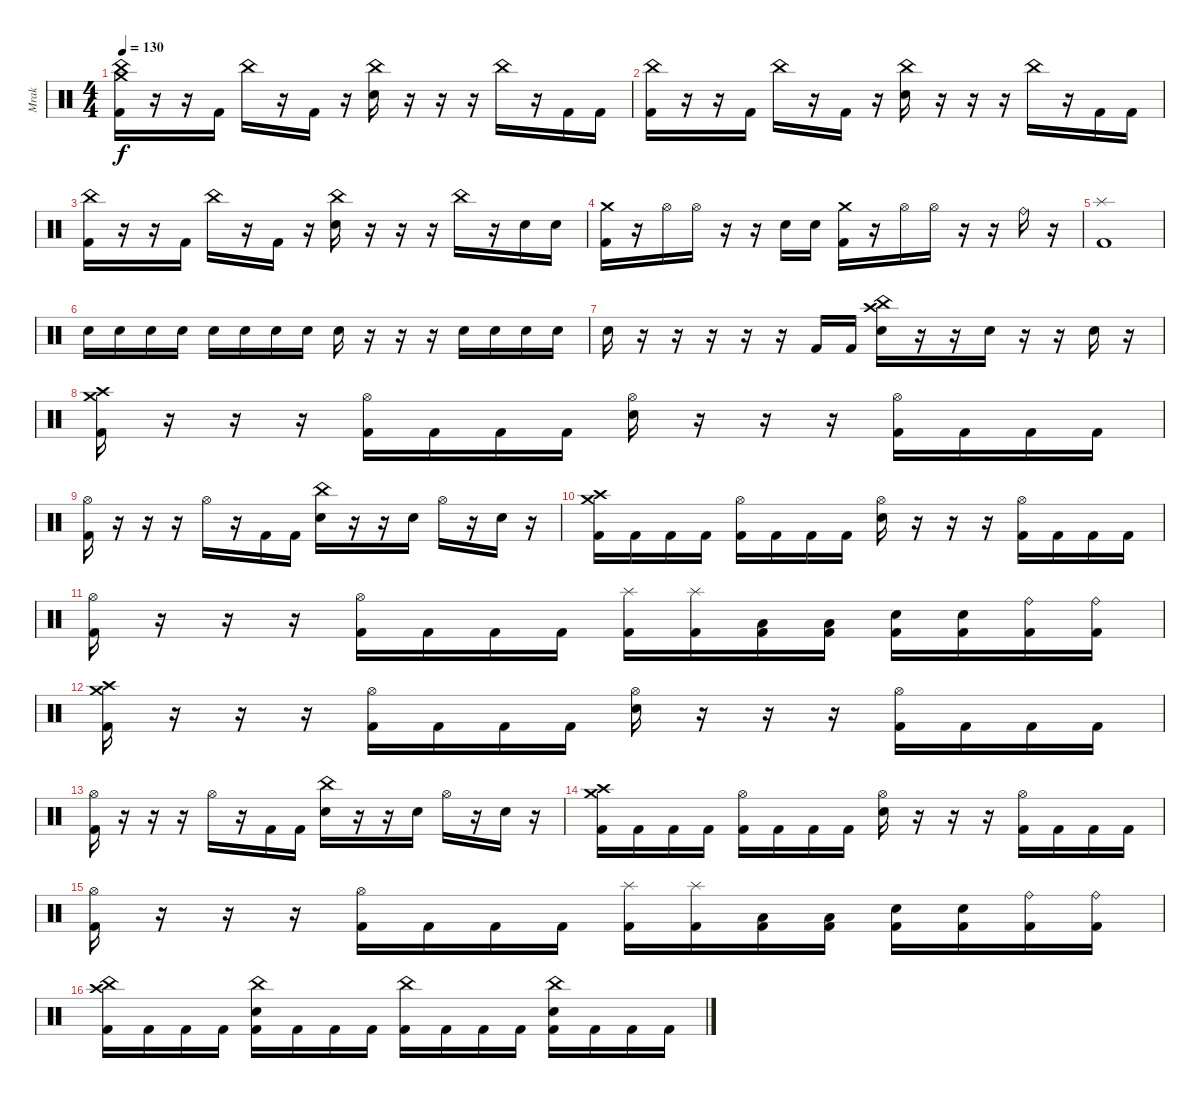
\track ("Mrak" "Mrak") {instrument percussion}
\staff {score}
\articulation defaults
\ts (4 4)
\tempo 130
\clef neutral
\ks c
("Crash medium (hit)" "China (hit)" "Kick (hit) 2").16{dy f} r.16 r.16 "Kick (hit) 2".16 "China (hit)".16 r.16 "Kick (hit) 2".16 r.16 ("China (hit)" "Electric Snare (hit)").16 r.16 r.16 r.16 "China (hit)".16 r.16 "Kick (hit) 2".16 "Kick (hit) 2".16 |
("China (hit)" "Kick (hit) 2").16 r.16 r.16 "Kick (hit) 2".16 "China (hit)".16 r.16 "Kick (hit) 2".16 r.16 ("China (hit)" "Electric Snare (hit)").16 r.16 r.16 r.16 "China (hit)".16 r.16 "Kick (hit) 2".16 "Kick (hit) 2".16 |
("China (hit)" "Kick (hit) 2").16 r.16 r.16 "Kick (hit) 2".16 "China (hit)".16 r.16 "Kick (hit) 2".16 r.16 ("China (hit)" "Electric Snare (hit)").16 r.16 r.16 r.16 "China (hit)".16 r.16 "Electric Snare (hit)".16 "Electric Snare (hit)".16 |
("Crash medium (hit)" "Kick (hit) 2").16 r.16 "Hi-Hat (open)".16 "Hi-Hat (open)".16 r.16 r.16 "Electric Snare (hit)".16 "Electric Snare (hit)".16 ("Crash medium (hit)" "Kick (hit) 2").16 r.16 "Hi-Hat (open)".16 "Hi-Hat (open)".16 r.16 r.16 "Ride (bell)".16 r.16 |
("Splash (hit)" "Kick (hit) 2").1 |
"Electric Snare (hit)".16 "Electric Snare (hit)".16 "Electric Snare (hit)".16 "Electric Snare (hit)".16 "Electric Snare (hit)".16 "Electric Snare (hit)".16 "Electric Snare (hit)".16 "Electric Snare (hit)".16 "Electric Snare (hit)".16 r.16 r.16 r.16 "Electric Snare (hit)".16 "Electric Snare (hit)".16 "Electric Snare (hit)".16 "Electric Snare (hit)".16 |
"Electric Snare (hit)".16 r.16 r.16 r.16 r.16 r.16 "Kick (hit) 2".16 "Kick (hit) 2".16 ("Crash high (hit)" "China (hit)" "Electric Snare (hit)").16 r.16 r.16 "Electric Snare (hit)".16 r.16 r.16 "Electric Snare (hit)".16 r.16 |
("Crash high (hit)" "Crash medium (hit)" "Kick (hit) 2").16 r.16 r.16 r.16 ("Hi-Hat (open)" "Kick (hit) 2").16 "Kick (hit) 2".16 "Kick (hit) 2".16 "Kick (hit) 2".16 ("Hi-Hat (open)" "Electric Snare (hit)").16 r.16 r.16 r.16 ("Hi-Hat (open)" "Kick (hit) 2").16 "Kick (hit) 2".16 "Kick (hit) 2".16 "Kick (hit) 2".16 |
("Hi-Hat (open)" "Kick (hit) 2").16 r.16 r.16 r.16 "Hi-Hat (open)".16 r.16 "Kick (hit) 2".16 "Kick (hit) 2".16 ("China (hit)" "Electric Snare (hit)").16 r.16 r.16 "Electric Snare (hit)".16 "Hi-Hat (open)".16 r.16 "Electric Snare (hit)".16 r.16 |
("Crash high (hit)" "Crash medium (hit)" "Kick (hit) 2").16 "Kick (hit) 2".16 "Kick (hit) 2".16 "Kick (hit) 2".16 ("Hi-Hat (open)" "Kick (hit) 2").16 "Kick (hit) 2".16 "Kick (hit) 2".16 "Kick (hit) 2".16 ("Hi-Hat (open)" "Electric Snare (hit)").16 r.16 r.16 r.16 ("Hi-Hat (open)" "Kick (hit) 2").16 "Kick (hit) 2".16 "Kick (hit) 2".16 "Kick (hit) 2".16 |
("Hi-Hat (open)" "Kick (hit) 2").16 r.16 r.16 r.16 ("Hi-Hat (open)" "Kick (hit) 2").16 "Kick (hit) 2".16 "Kick (hit) 2".16 "Kick (hit) 2".16 ("Splash (hit)" "Kick (hit) 2").16 ("Splash (hit)" "Kick (hit) 2").16 ("Low Tom (hit)" "Kick (hit) 2").16 ("Low Tom (hit)" "Kick (hit) 2").16 ("Electric Snare (hit)" "Kick (hit) 2").16 ("Electric Snare (hit)" "Kick (hit) 2").16 ("Ride (bell)" "Kick (hit) 2").16 ("Ride (bell)" "Kick (hit) 2").16 |
("Crash high (hit)" "Crash medium (hit)" "Kick (hit) 2").16 r.16 r.16 r.16 ("Hi-Hat (open)" "Kick (hit) 2").16 "Kick (hit) 2".16 "Kick (hit) 2".16 "Kick (hit) 2".16 ("Hi-Hat (open)" "Electric Snare (hit)").16 r.16 r.16 r.16 ("Hi-Hat (open)" "Kick (hit) 2").16 "Kick (hit) 2".16 "Kick (hit) 2".16 "Kick (hit) 2".16 |
("Hi-Hat (open)" "Kick (hit) 2").16 r.16 r.16 r.16 "Hi-Hat (open)".16 r.16 "Kick (hit) 2".16 "Kick (hit) 2".16 ("China (hit)" "Electric Snare (hit)").16 r.16 r.16 "Electric Snare (hit)".16 "Hi-Hat (open)".16 r.16 "Electric Snare (hit)".16 r.16 |
("Crash high (hit)" "Crash medium (hit)" "Kick (hit) 2").16 "Kick (hit) 2".16 "Kick (hit) 2".16 "Kick (hit) 2".16 ("Hi-Hat (open)" "Kick (hit) 2").16 "Kick (hit) 2".16 "Kick (hit) 2".16 "Kick (hit) 2".16 ("Hi-Hat (open)" "Electric Snare (hit)").16 r.16 r.16 r.16 ("Hi-Hat (open)" "Kick (hit) 2").16 "Kick (hit) 2".16 "Kick (hit) 2".16 "Kick (hit) 2".16 |
("Hi-Hat (open)" "Kick (hit) 2").16 r.16 r.16 r.16 ("Hi-Hat (open)" "Kick (hit) 2").16 "Kick (hit) 2".16 "Kick (hit) 2".16 "Kick (hit) 2".16 ("Splash (hit)" "Kick (hit) 2").16 ("Splash (hit)" "Kick (hit) 2").16 ("Low Tom (hit)" "Kick (hit) 2").16 ("Low Tom (hit)" "Kick (hit) 2").16 ("Electric Snare (hit)" "Kick (hit) 2").16 ("Electric Snare (hit)" "Kick (hit) 2").16 ("Ride (bell)" "Kick (hit) 2").16 ("Ride (bell)" "Kick (hit) 2").16 |
("Crash high (hit)" "China (hit)" "Kick (hit) 2").16 "Kick (hit) 2".16 "Kick (hit) 2".16 "Kick (hit) 2".16 ("China (hit)" "Electric Snare (hit)" "Kick (hit) 2").16 "Kick (hit) 2".16 "Kick (hit) 2".16 "Kick (hit) 2".16 ("China (hit)" "Kick (hit) 2").16 "Kick (hit) 2".16 "Kick (hit) 2".16 "Kick (hit) 2".16 ("China (hit)" "Electric Snare (hit)" "Kick (hit) 2").16 "Kick (hit) 2".16 "Kick (hit) 2".16 "Kick (hit) 2".16
